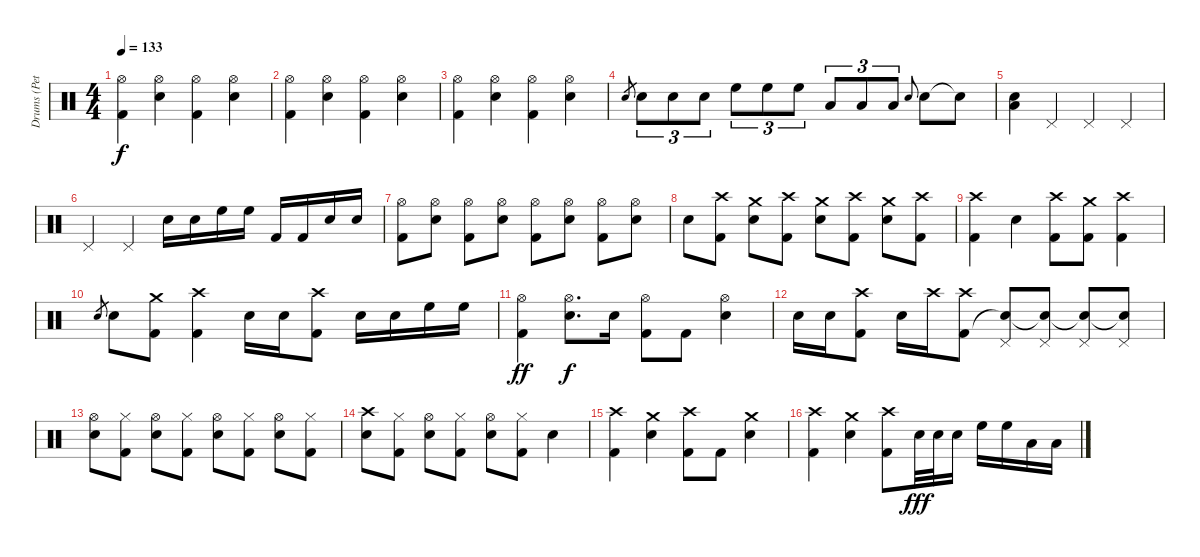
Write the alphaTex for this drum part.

\track ("Drums (Peter)" "Drums (Pet") {instrument percussion}
\staff {score}
\articulation defaults
\ts (4 4)
\tempo 133
\clef neutral
\ks c
("Hi-Hat (open)" "Kick (hit) 2").4{dy f} ("Hi-Hat (open)" "Electric Snare (hit)").4 ("Hi-Hat (open)" "Kick (hit) 2").4 ("Hi-Hat (open)" "Electric Snare (hit)").4 |
("Hi-Hat (open)" "Kick (hit) 2").4 ("Hi-Hat (open)" "Electric Snare (hit)").4 ("Hi-Hat (open)" "Kick (hit) 2").4 ("Hi-Hat (open)" "Electric Snare (hit)").4 |
("Hi-Hat (open)" "Kick (hit) 2").4 ("Hi-Hat (open)" "Electric Snare (hit)").4 ("Hi-Hat (open)" "Kick (hit) 2").4 ("Hi-Hat (open)" "Electric Snare (hit)").4 |
"Electric Snare (hit)".8{gr} "Electric Snare (hit)".8{tu (3 2)} "Electric Snare (hit)".8{tu (3 2)} "Electric Snare (hit)".8{tu (3 2)} "High Floor Tom (hit)".8{tu (3 2)} "High Floor Tom (hit)".8{tu (3 2)} "High Floor Tom (hit)".8{tu (3 2)} "Low Tom (hit)".8{tu (3 2)} "Low Tom (hit)".8{tu (3 2)} "Low Tom (hit)".8{tu (3 2)} "Electric Snare (hit)".8{gr onbeat} "Electric Snare (hit)".8 "Snare (hit)"{t}.8 |
("Electric Snare (hit)" "Low Floor Tom (hit)").4 "Pedal Hi-Hat (hit)".4 "Pedal Hi-Hat (hit)".4 "Pedal Hi-Hat (hit)".4 |
"Pedal Hi-Hat (hit)".4 "Pedal Hi-Hat (hit)".4 "Electric Snare (hit)".16 "Electric Snare (hit)".16 "High Floor Tom (hit)".16 "High Floor Tom (hit)".16 "Kick (hit) 2".16 "Kick (hit) 2".16 "Electric Snare (hit)".16 "Electric Snare (hit)".16 |
("Hi-Hat (open)" "Kick (hit) 2").8 ("Hi-Hat (open)" "Electric Snare (hit)").8 ("Hi-Hat (open)" "Kick (hit) 2").8 ("Hi-Hat (open)" "Electric Snare (hit)").8 ("Hi-Hat (open)" "Kick (hit) 2").8 ("Hi-Hat (open)" "Electric Snare (hit)").8 ("Hi-Hat (open)" "Kick (hit) 2").8 ("Hi-Hat (open)" "Electric Snare (hit)").8 |
"Electric Snare (hit)".8 ("Crash high (hit)" "Kick (hit) 2").8 ("Crash medium (hit)" "Electric Snare (hit)").8 ("Crash high (hit)" "Kick (hit) 2").8 ("Crash medium (hit)" "Electric Snare (hit)").8 ("Crash high (hit)" "Kick (hit) 2").8 ("Crash medium (hit)" "Electric Snare (hit)").8 ("Crash high (hit)" "Kick (hit) 2").8 |
("Crash high (hit)" "Kick (hit) 2").4 "Electric Snare (hit)".4 ("Crash high (hit)" "Kick (hit) 2").8 ("Crash medium (hit)" "Kick (hit) 2").8 ("Crash high (hit)" "Kick (hit) 2").4 |
"Electric Snare (hit)".8{gr} "Electric Snare (hit)".8 ("Crash medium (hit)" "Kick (hit) 2").8 ("Crash high (hit)" "Kick (hit) 2").4 "Electric Snare (hit)".16 "Electric Snare (hit)".16 ("Crash high (hit)" "Kick (hit) 2").8 "Electric Snare (hit)".16 "Electric Snare (hit)".16 "High Floor Tom (hit)".16 "High Floor Tom (hit)".16 |
("Hi-Hat (open)" "Kick (hit) 2").4{dy ff} ("Hi-Hat (open)" "Electric Snare (hit)").8{d dy f} "Snare (hit) 2".16 ("Hi-Hat (open)" "Kick (hit) 2").8 "Kick (hit) 2".8 ("Hi-Hat (open)" "Electric Snare (hit)").4 |
"Electric Snare (hit)".16 "Electric Snare (hit)".16 ("Crash high (hit)" "Kick (hit) 2").8 "Electric Snare (hit)".16 "Crash high (hit)".16 ("Crash high (hit)" "Kick (hit) 2").8 ("Pedal Hi-Hat (hit)" "Snare (hit)"{t}).8 ("Pedal Hi-Hat (hit)" "Snare (hit)"{t}).8 ("Pedal Hi-Hat (hit)" "Snare (hit)"{t}).8 ("Pedal Hi-Hat (hit)" "Snare (hit)"{t}).8 |
("Hi-Hat (open)" "Electric Snare (hit)").8 ("Hi-Hat (closed)" "Kick (hit) 2").8 ("Hi-Hat (open)" "Electric Snare (hit)").8 ("Hi-Hat (closed)" "Kick (hit) 2").8 ("Hi-Hat (open)" "Electric Snare (hit)").8 ("Hi-Hat (closed)" "Kick (hit) 2").8 ("Hi-Hat (open)" "Electric Snare (hit)").8 ("Hi-Hat (closed)" "Kick (hit) 2").8 |
("Crash high (hit)" "Electric Snare (hit)").8 ("Hi-Hat (closed)" "Kick (hit) 2").8 ("Hi-Hat (open)" "Electric Snare (hit)").8 ("Hi-Hat (closed)" "Kick (hit) 2").8 ("Hi-Hat (open)" "Electric Snare (hit)").8 ("Hi-Hat (closed)" "Kick (hit) 2").8 "Electric Snare (hit)".4 |
("Crash high (hit)" "Kick (hit) 2").4 ("Crash medium (hit)" "Electric Snare (hit)").4 ("Crash high (hit)" "Kick (hit) 2").8 "Kick (hit) 2".8 ("Crash medium (hit)" "Electric Snare (hit)").4 |
("Crash high (hit)" "Kick (hit) 2").4 ("Crash medium (hit)" "Electric Snare (hit)").4 ("Crash high (hit)" "Kick (hit) 2").8 "Electric Snare (hit)".32{dy fff} "Electric Snare (hit)".32 "Electric Snare (hit)".16 "High Floor Tom (hit)".16 "High Floor Tom (hit)".16 "Low Tom (hit)".16 "Low Tom (hit)".16
